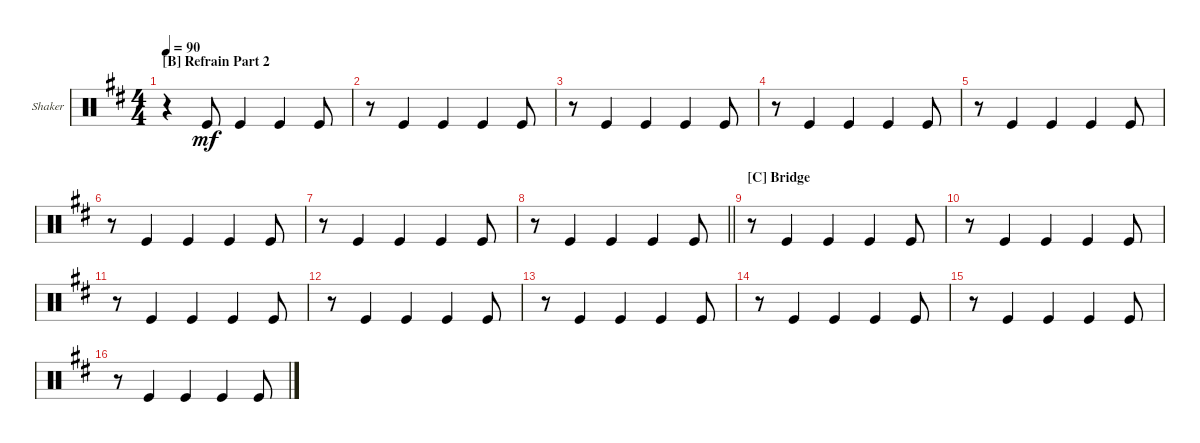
\defaultSystemsLayout 4
\bracketExtendMode groupsimilarinstruments
\firstSystemTrackNameOrientation horizontal
\otherSystemsTrackNameOrientation horizontal
\track ("Shaker" "Shaker") {instrument percussion}
\staff {score}
\articulation defaults
\ts (4 4)
\section ("B" "Refrain Part 2")
\tempo 90
\clef neutral
\scale
0.25
\ks d
r.4{dy mf} "Kick (hit)".8 "Kick (hit)".4 "Kick (hit)".4 "Kick (hit)".8 |
\scale
0.25 r.8 "Kick (hit)".4 "Kick (hit)".4 "Kick (hit)".4 "Kick (hit)".8 |
\scale
0.25 r.8 "Kick (hit)".4 "Kick (hit)".4 "Kick (hit)".4 "Kick (hit)".8 |
\scale
0.25 r.8 "Kick (hit)".4 "Kick (hit)".4 "Kick (hit)".4 "Kick (hit)".8 |
\scale
0.25 r.8 "Kick (hit)".4 "Kick (hit)".4 "Kick (hit)".4 "Kick (hit)".8 |
\scale
0.25 r.8 "Kick (hit)".4 "Kick (hit)".4 "Kick (hit)".4 "Kick (hit)".8 |
\scale
0.25 r.8 "Kick (hit)".4 "Kick (hit)".4 "Kick (hit)".4 "Kick (hit)".8 |
\scale
0.25
\barLineRight lightlight
r.8 "Kick (hit)".4 "Kick (hit)".4 "Kick (hit)".4 "Kick (hit)".8 |
\section ("C" "Bridge")
\scale
0.25 r.8 "Kick (hit)".4 "Kick (hit)".4 "Kick (hit)".4 "Kick (hit)".8 |
\scale
0.25 r.8 "Kick (hit)".4 "Kick (hit)".4 "Kick (hit)".4 "Kick (hit)".8 |
\scale
0.25 r.8 "Kick (hit)".4 "Kick (hit)".4 "Kick (hit)".4 "Kick (hit)".8 |
\scale
0.25 r.8 "Kick (hit)".4 "Kick (hit)".4 "Kick (hit)".4 "Kick (hit)".8 |
\scale
0.25 r.8 "Kick (hit)".4 "Kick (hit)".4 "Kick (hit)".4 "Kick (hit)".8 |
\scale
0.25 r.8 "Kick (hit)".4 "Kick (hit)".4 "Kick (hit)".4 "Kick (hit)".8 |
\scale
0.25 r.8 "Kick (hit)".4 "Kick (hit)".4 "Kick (hit)".4 "Kick (hit)".8 |
\scale
0.25 r.8 "Kick (hit)".4 "Kick (hit)".4 "Kick (hit)".4 "Kick (hit)".8
